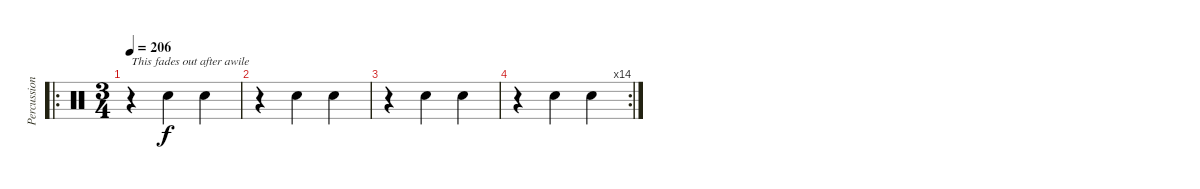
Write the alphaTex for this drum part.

\track ("Percussion" "Percussion") {instrument percussion}
\staff {score}
\articulation defaults
\ro
\ts (3 4)
\tempo 206
\clef neutral
\ks c
r.4{txt "This fades out after awile" dy f} "Electric Snare (hit)".4 "Electric Snare (hit)".4 |
r.4 "Electric Snare (hit)".4 "Electric Snare (hit)".4 |
r.4 "Electric Snare (hit)".4 "Electric Snare (hit)".4 |
\rc 14
r.4 "Electric Snare (hit)".4 "Electric Snare (hit)".4
